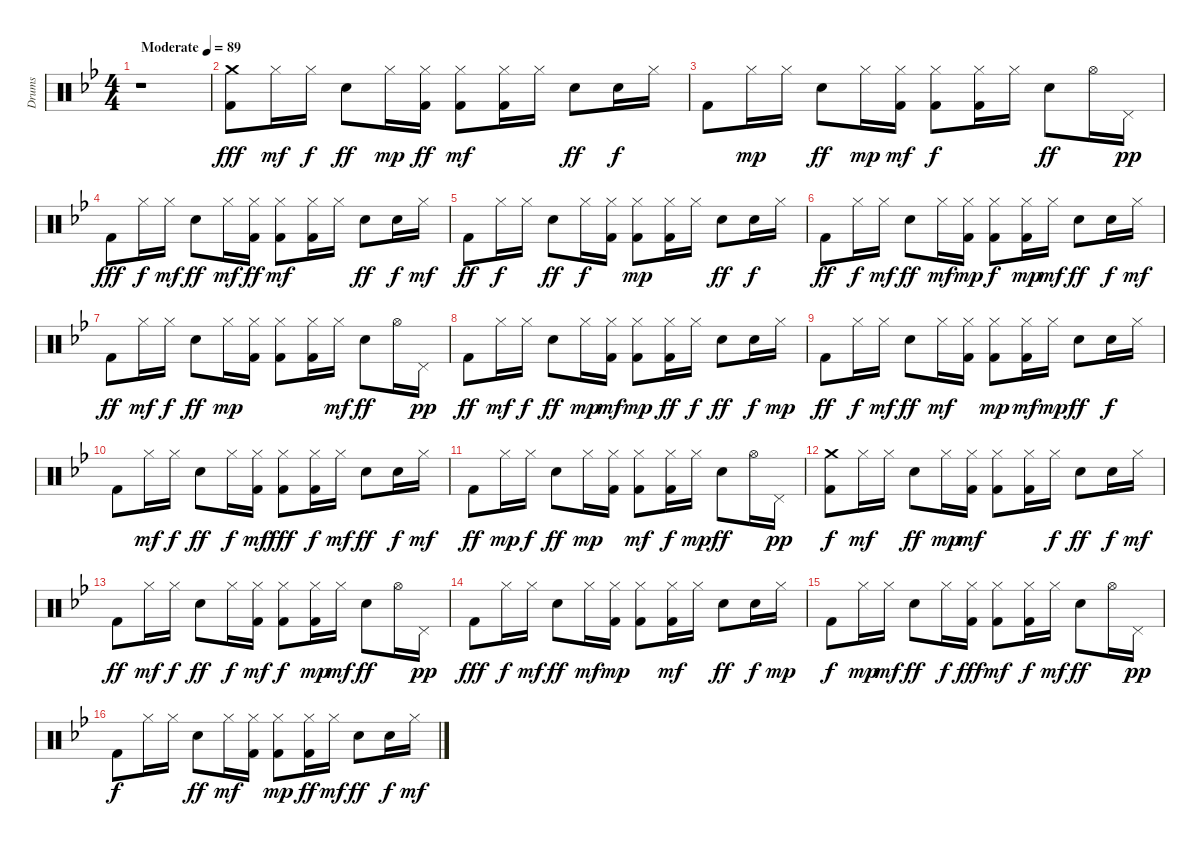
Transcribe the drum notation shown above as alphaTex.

\track ("Drums" "Drums") {instrument percussion}
\staff {score}
\articulation defaults
\ts (4 4)
\tempo (89 "Moderate")
\clef neutral
\ks bb
r.1{dy fff} |
("Kick (hit) 2" "Crash medium (hit)").8 "Hi-Hat (closed)".16{dy mf} "Hi-Hat (closed)".16{dy f} "Electric Snare (hit)".8{dy ff} "Hi-Hat (closed)".16{dy mp} ("Kick (hit) 2" "Hi-Hat (closed)").16{dy ff} ("Kick (hit) 2" "Hi-Hat (closed)").8{dy mf} ("Kick (hit) 2" "Hi-Hat (closed)").16 "Hi-Hat (closed)".16 "Electric Snare (hit)".8{dy ff} "Hand Clap (hit)".16{dy f} "Hi-Hat (closed)".16 |
"Kick (hit) 2".8 "Hi-Hat (closed)".16{dy mp} "Hi-Hat (closed)".16 "Electric Snare (hit)".8{dy ff} "Hi-Hat (closed)".16{dy mp} ("Kick (hit) 2" "Hi-Hat (closed)").16{dy mf} ("Kick (hit) 2" "Hi-Hat (closed)").8{dy f} ("Kick (hit) 2" "Hi-Hat (closed)").16 "Hi-Hat (closed)".16 "Electric Snare (hit)".8{dy ff} "Hi-Hat (open)".16 "Pedal Hi-Hat (hit)".16{dy pp} |
"Kick (hit) 2".8{dy fff} "Hi-Hat (closed)".16{dy f} "Hi-Hat (closed)".16{dy mf} "Electric Snare (hit)".8{dy ff} "Hi-Hat (closed)".16{dy mf} ("Kick (hit) 2" "Hi-Hat (closed)").16{dy ff} ("Kick (hit) 2" "Hi-Hat (closed)").8{dy mf} ("Kick (hit) 2" "Hi-Hat (closed)").16 "Hi-Hat (closed)".16 "Electric Snare (hit)".8{dy ff} "Hand Clap (hit)".16{dy f} "Hi-Hat (closed)".16{dy mf} |
"Kick (hit) 2".8{dy ff} "Hi-Hat (closed)".16{dy f} "Hi-Hat (closed)".16 "Electric Snare (hit)".8{dy ff} "Hi-Hat (closed)".16{dy f} ("Kick (hit) 2" "Hi-Hat (closed)").16 ("Kick (hit) 2" "Hi-Hat (closed)").8{dy mp} ("Kick (hit) 2" "Hi-Hat (closed)").16 "Hi-Hat (closed)".16 "Electric Snare (hit)".8{dy ff} "Hand Clap (hit)".16{dy f} "Hi-Hat (closed)".16 |
"Kick (hit) 2".8{dy ff} "Hi-Hat (closed)".16{dy f} "Hi-Hat (closed)".16{dy mf} "Electric Snare (hit)".8{dy ff} "Hi-Hat (closed)".16{dy mf} ("Kick (hit) 2" "Hi-Hat (closed)").16{dy mp} ("Kick (hit) 2" "Hi-Hat (closed)").8{dy f} ("Kick (hit) 2" "Hi-Hat (closed)").16{dy mp} "Hi-Hat (closed)".16{dy mf} "Electric Snare (hit)".8{dy ff} "Hand Clap (hit)".16{dy f} "Hi-Hat (closed)".16{dy mf} |
"Kick (hit) 2".8{dy ff} "Hi-Hat (closed)".16{dy mf} "Hi-Hat (closed)".16{dy f} "Electric Snare (hit)".8{dy ff} "Hi-Hat (closed)".16{dy mp} ("Kick (hit) 2" "Hi-Hat (closed)").16 ("Kick (hit) 2" "Hi-Hat (closed)").8 ("Kick (hit) 2" "Hi-Hat (closed)").16 "Hi-Hat (closed)".16{dy mf} "Electric Snare (hit)".8{dy ff} "Hi-Hat (open)".16 "Pedal Hi-Hat (hit)".16{dy pp} |
"Kick (hit) 2".8{dy ff} "Hi-Hat (closed)".16{dy mf} "Hi-Hat (closed)".16{dy f} "Electric Snare (hit)".8{dy ff} "Hi-Hat (closed)".16{dy mp} ("Kick (hit) 2" "Hi-Hat (closed)").16{dy mf} ("Kick (hit) 2" "Hi-Hat (closed)").8{dy mp} ("Kick (hit) 2" "Hi-Hat (closed)").16{dy ff} "Hi-Hat (closed)".16{dy f} "Electric Snare (hit)".8{dy ff} "Hand Clap (hit)".16{dy f} "Hi-Hat (closed)".16{dy mp} |
"Kick (hit) 2".8{dy ff} "Hi-Hat (closed)".16{dy f} "Hi-Hat (closed)".16{dy mf} "Electric Snare (hit)".8{dy ff} "Hi-Hat (closed)".16{dy mf} ("Kick (hit) 2" "Hi-Hat (closed)").16 ("Kick (hit) 2" "Hi-Hat (closed)").8{dy mp} ("Kick (hit) 2" "Hi-Hat (closed)").16{dy mf} "Hi-Hat (closed)".16{dy mp} "Electric Snare (hit)".8{dy ff} "Hand Clap (hit)".16{dy f} "Hi-Hat (closed)".16 |
"Kick (hit) 2".8 "Hi-Hat (closed)".16{dy mf} "Hi-Hat (closed)".16{dy f} "Electric Snare (hit)".8{dy ff} "Hi-Hat (closed)".16{dy f} ("Kick (hit) 2" "Hi-Hat (closed)").16{dy mf} ("Kick (hit) 2" "Hi-Hat (closed)").8{dy fff} ("Kick (hit) 2" "Hi-Hat (closed)").16{dy f} "Hi-Hat (closed)".16{dy mf} "Electric Snare (hit)".8{dy ff} "Hand Clap (hit)".16{dy f} "Hi-Hat (closed)".16{dy mf} |
"Kick (hit) 2".8{dy ff} "Hi-Hat (closed)".16{dy mp} "Hi-Hat (closed)".16{dy f} "Electric Snare (hit)".8{dy ff} "Hi-Hat (closed)".16{dy mp} ("Kick (hit) 2" "Hi-Hat (closed)").16 ("Kick (hit) 2" "Hi-Hat (closed)").8{dy mf} ("Kick (hit) 2" "Hi-Hat (closed)").16{dy f} "Hi-Hat (closed)".16{dy mp} "Electric Snare (hit)".8{dy ff} "Hi-Hat (open)".16 "Pedal Hi-Hat (hit)".16{dy pp} |
("Kick (hit) 2" "Crash medium (hit)").8{dy f} "Hi-Hat (closed)".16{dy mf} "Hi-Hat (closed)".16 "Electric Snare (hit)".8{dy ff} "Hi-Hat (closed)".16{dy mp} ("Kick (hit) 2" "Hi-Hat (closed)").16{dy mf} ("Kick (hit) 2" "Hi-Hat (closed)").8 ("Kick (hit) 2" "Hi-Hat (closed)").16 "Hi-Hat (closed)".16{dy f} "Electric Snare (hit)".8{dy ff} "Hand Clap (hit)".16{dy f} "Hi-Hat (closed)".16{dy mf} |
"Kick (hit) 2".8{dy ff} "Hi-Hat (closed)".16{dy mf} "Hi-Hat (closed)".16{dy f} "Electric Snare (hit)".8{dy ff} "Hi-Hat (closed)".16{dy f} ("Kick (hit) 2" "Hi-Hat (closed)").16{dy mf} ("Kick (hit) 2" "Hi-Hat (closed)").8{dy f} ("Kick (hit) 2" "Hi-Hat (closed)").16{dy mp} "Hi-Hat (closed)".16{dy mf} "Electric Snare (hit)".8{dy ff} "Hi-Hat (open)".16 "Pedal Hi-Hat (hit)".16{dy pp} |
"Kick (hit) 2".8{dy fff} "Hi-Hat (closed)".16{dy f} "Hi-Hat (closed)".16{dy mf} "Electric Snare (hit)".8{dy ff} "Hi-Hat (closed)".16{dy mf} ("Kick (hit) 2" "Hi-Hat (closed)").16{dy mp} ("Kick (hit) 2" "Hi-Hat (closed)").8 ("Kick (hit) 2" "Hi-Hat (closed)").16{dy mf} "Hi-Hat (closed)".16 "Electric Snare (hit)".8{dy ff} "Hand Clap (hit)".16{dy f} "Hi-Hat (closed)".16{dy mp} |
"Kick (hit) 2".8{dy f} "Hi-Hat (closed)".16{dy mp} "Hi-Hat (closed)".16{dy mf} "Electric Snare (hit)".8{dy ff} "Hi-Hat (closed)".16{dy f} ("Kick (hit) 2" "Hi-Hat (closed)").16{dy fff} ("Kick (hit) 2" "Hi-Hat (closed)").8{dy mf} ("Kick (hit) 2" "Hi-Hat (closed)").16{dy f} "Hi-Hat (closed)".16{dy mf} "Electric Snare (hit)".8{dy ff} "Hi-Hat (open)".16 "Pedal Hi-Hat (hit)".16{dy pp} |
"Kick (hit) 2".8{dy f} "Hi-Hat (closed)".16 "Hi-Hat (closed)".16 "Electric Snare (hit)".8{dy ff} "Hi-Hat (closed)".16{dy mf} ("Kick (hit) 2" "Hi-Hat (closed)").16 ("Kick (hit) 2" "Hi-Hat (closed)").8{dy mp} ("Kick (hit) 2" "Hi-Hat (closed)").16{dy ff} "Hi-Hat (closed)".16{dy mf} "Electric Snare (hit)".8{dy ff} "Hand Clap (hit)".16{dy f} "Hi-Hat (closed)".16{dy mf}
